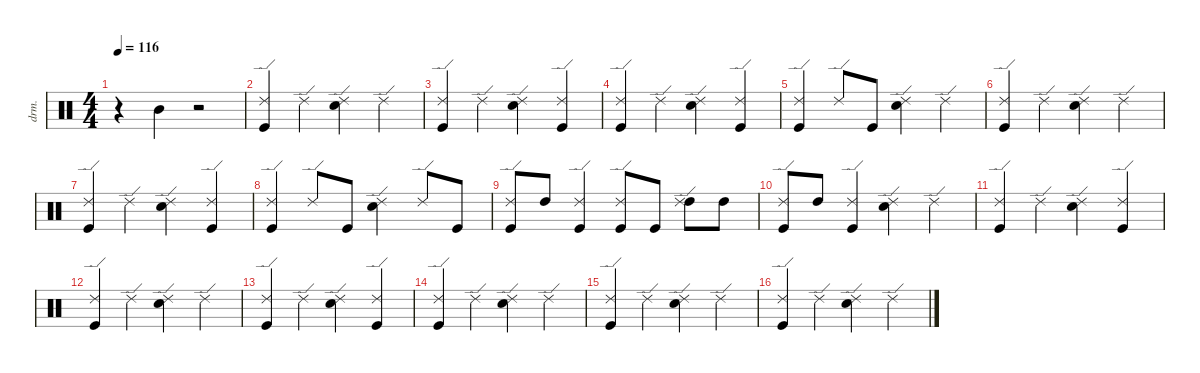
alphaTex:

\defaultSystemsLayout 4
\hideDynamics
\bracketExtendMode nobrackets
\otherSystemsTrackNameOrientation horizontal
\track ("Drum" "drm.") {instrument percussion}
\staff {score}
\articulation defaults
\ts (4 4)
\tempo 116
\clef neutral
\ks c
r.4{dy f beam Down} "Mid Tom (hit)".4{beam Down} r.2{beam Down} |
("Kick (hit)" "Ride (edge) 2").4{beam Up} "Ride (edge) 2".4{beam Down} ("Snare (hit) 2" "Ride (edge) 2").4{beam Down} "Ride (edge) 2".4{beam Down} |
("Kick (hit)" "Ride (edge) 2").4{beam Up} "Ride (edge) 2".4{beam Down} ("Snare (hit) 2" "Ride (edge) 2").4{beam Down} ("Kick (hit)" "Ride (edge) 2").4{beam Up} |
("Kick (hit)" "Ride (edge) 2").4{beam Up} "Ride (edge) 2".4{beam Down} ("Snare (hit) 2" "Ride (edge) 2").4{beam Down} ("Kick (hit)" "Ride (edge) 2").4{beam Up} |
("Kick (hit)" "Ride (edge) 2").4{beam Up} "Ride (edge) 2".8{beam Up} "Kick (hit)".8{beam Up} ("Snare (hit) 2" "Ride (edge) 2").4{beam Down} "Ride (edge) 2".4{beam Down} |
("Kick (hit)" "Ride (edge) 2").4{beam Up} "Ride (edge) 2".4{beam Down} ("Snare (hit) 2" "Ride (edge) 2").4{beam Down} "Ride (edge) 2".4{beam Down} |
("Kick (hit)" "Ride (edge) 2").4{beam Up} "Ride (edge) 2".4{beam Down} ("Snare (hit) 2" "Ride (edge) 2").4{beam Down} ("Kick (hit)" "Ride (edge) 2").4{beam Up} |
("Kick (hit)" "Ride (edge) 2").4{beam Up} "Ride (edge) 2".8{beam Up} "Kick (hit)".8{beam Up} ("Snare (hit) 2" "Ride (edge) 2").4{beam Down} "Ride (edge) 2".8{beam Up} "Kick (hit)".8{beam Up} |
("Kick (hit)" "Ride (edge) 2").8{beam Up} "High Tom (hit)".8{beam Up} ("Kick (hit)" "Ride (edge) 2").4{beam Up} ("Kick (hit)" "Ride (edge) 2").8{beam Up} "Kick (hit)".8{beam Up} ("High Tom (hit)" "Ride (edge) 2").8{beam Down} "High Tom (hit)".8{beam Down} |
("Kick (hit)" "Ride (edge) 2").8{beam Up} "High Tom (hit)".8{beam Up} ("Kick (hit)" "Ride (edge) 2").4{beam Up} ("Snare (hit) 2" "Ride (edge) 2").4{beam Down} "Ride (edge) 2".4{beam Down} |
("Kick (hit)" "Ride (edge) 2").4{beam Up} "Ride (edge) 2".4{beam Down} ("Snare (hit) 2" "Ride (edge) 2").4{beam Down} ("Kick (hit)" "Ride (edge) 2").4{beam Up} |
("Kick (hit)" "Ride (edge) 2").4{beam Up} "Ride (edge) 2".4{beam Down} ("Snare (hit) 2" "Ride (edge) 2").4{beam Down} "Ride (edge) 2".4{beam Down} |
("Kick (hit)" "Ride (edge) 2").4{beam Up} "Ride (edge) 2".4{beam Down} ("Snare (hit) 2" "Ride (edge) 2").4{beam Down} ("Kick (hit)" "Ride (edge) 2").4{beam Up} |
("Kick (hit)" "Ride (edge) 2").4{beam Up} "Ride (edge) 2".4{beam Down} ("Snare (hit) 2" "Ride (edge) 2").4{beam Down} "Ride (edge) 2".4{beam Down} |
("Kick (hit)" "Ride (edge) 2").4{beam Up} "Ride (edge) 2".4{beam Down} ("Snare (hit) 2" "Ride (edge) 2").4{beam Down} "Ride (edge) 2".4{beam Down} |
("Kick (hit)" "Ride (edge) 2").4{beam Up} "Ride (edge) 2".4{beam Down} ("Snare (hit) 2" "Ride (edge) 2").4{beam Down} "Ride (edge) 2".4{beam Down}
